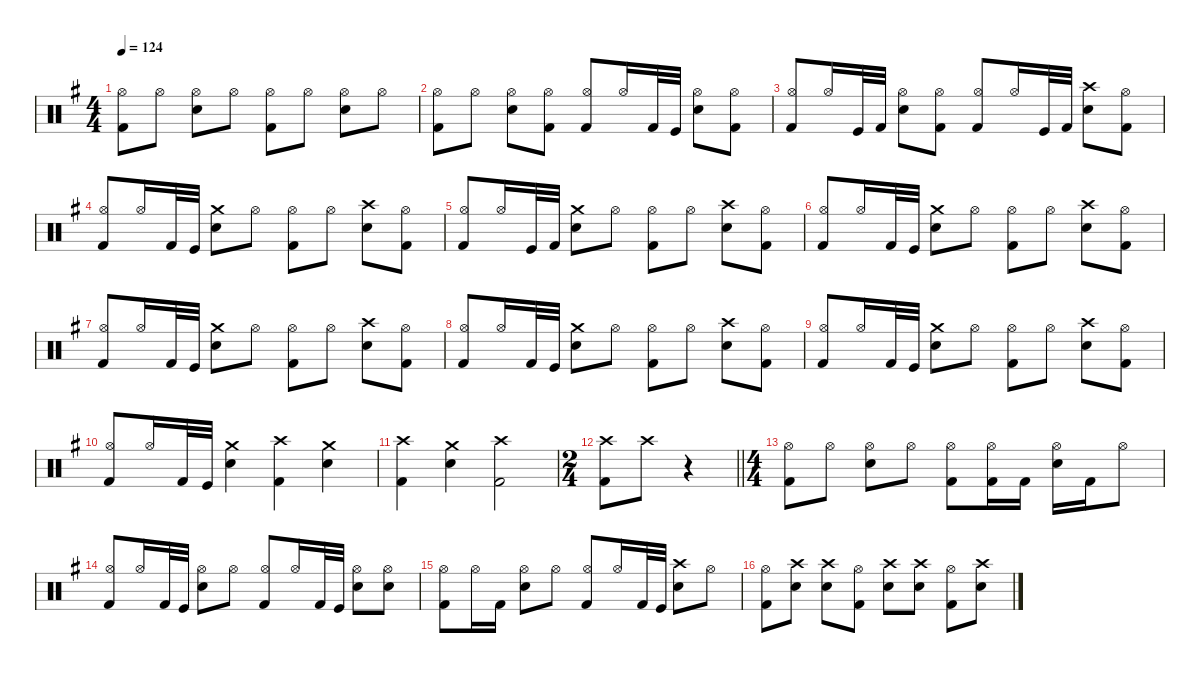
\defaultSystemsLayout 4
\hideDynamics
\bracketExtendMode nobrackets
\singleTrackTrackNamePolicy hidden
\multiTrackTrackNamePolicy hidden
\otherSystemsTrackNameOrientation horizontal
\track ("Drums" "drm.") {defaultSystemsLayout 4 instrument percussion}
\staff {score}
\articulation defaults
\ts (4 4)
\tempo 124
\clef neutral
\ks eminor
("Hi-Hat (open)"{acc forcenatural} "Kick (hit) 2"{acc forcenatural}).8{dy mf beam Down} "Hi-Hat (open)"{acc forcenatural}.8{beam Down} ("Hi-Hat (open)"{acc forcenatural} "Snare (hit) 2"{acc forcenatural}).8{beam Down} "Hi-Hat (open)"{acc forcenatural}.8{beam Down} ("Hi-Hat (open)"{acc forcenatural} "Kick (hit) 2"{acc forcenatural}).8{beam Down} "Hi-Hat (open)"{acc forcenatural}.8{beam Down} ("Hi-Hat (open)"{acc forcenatural} "Snare (hit) 2"{acc forcenatural}).8{beam Down} "Hi-Hat (open)"{acc forcenatural}.8{beam Down} |
("Hi-Hat (open)"{acc forcenatural} "Kick (hit) 2"{acc forcenatural}).8{beam Down} "Hi-Hat (open)"{acc forcenatural}.8{beam Down} ("Hi-Hat (open)"{acc forcenatural} "Snare (hit) 2"{acc forcenatural}).8{beam Down} ("Hi-Hat (open)"{acc forcenatural} "Kick (hit) 2"{acc forcenatural}).8{beam Down} ("Hi-Hat (open)"{acc forcenatural} "Kick (hit) 2"{acc forcenatural}).8{beam Up} "Hi-Hat (open)"{acc forcenatural}.16{beam Up} "Kick (hit) 2"{acc forcenatural}.32{dy ff beam Up} "Kick (hit)"{acc forcenatural}.32{beam Up} ("Hi-Hat (open)"{acc forcenatural} "Snare (hit) 2"{acc forcenatural}).8{dy mf beam Down} ("Hi-Hat (open)"{acc forcenatural} "Kick (hit) 2"{acc forcenatural}).8{beam Down} |
("Hi-Hat (open)"{acc forcenatural} "Kick (hit) 2"{acc forcenatural}).8{beam Up} "Hi-Hat (open)"{acc forcenatural}.16{beam Up} "Kick (hit)"{acc forcenatural}.32{dy ff beam Up} "Kick (hit) 2"{acc forcenatural}.32{beam Up} ("Hi-Hat (open)"{acc forcenatural} "Snare (hit) 2"{acc forcenatural}).8{dy mf beam Down} ("Hi-Hat (open)"{acc forcenatural} "Kick (hit) 2"{acc forcenatural}).8{beam Down} ("Hi-Hat (open)"{acc forcenatural} "Kick (hit) 2"{acc forcenatural}).8{beam Up} "Hi-Hat (open)"{acc forcenatural}.16{beam Up} "Kick (hit)"{acc forcenatural}.32{dy ff beam Up} "Kick (hit) 2"{acc forcenatural}.32{beam Up} ("Crash high (hit)"{acc forcenatural} "Snare (hit) 2"{acc forcenatural}).8{dy mf beam Down} ("Hi-Hat (open)"{acc forcenatural} "Kick (hit) 2"{acc forcenatural}).8{beam Down} |
("Hi-Hat (open)"{acc forcenatural} "Kick (hit) 2"{acc forcenatural}).8{beam Up} "Hi-Hat (open)"{acc forcenatural}.16{beam Up} "Kick (hit) 2"{acc forcenatural}.32{dy ff beam Up} "Kick (hit)"{acc forcenatural}.32{beam Up} ("Crash medium (hit)"{acc forcenatural} "Snare (hit) 2"{acc forcenatural}).8{dy mf beam Down} "Hi-Hat (open)"{acc forcenatural}.8{beam Down} ("Hi-Hat (open)"{acc forcenatural} "Kick (hit) 2"{acc forcenatural}).8{beam Down} "Hi-Hat (open)"{acc forcenatural}.8{beam Down} ("Crash high (hit)"{acc forcenatural} "Snare (hit) 2"{acc forcenatural}).8{beam Down} ("Hi-Hat (open)"{acc forcenatural} "Kick (hit) 2"{acc forcenatural}).8{beam Down} |
("Hi-Hat (open)"{acc forcenatural} "Kick (hit) 2"{acc forcenatural}).8{beam Up} "Hi-Hat (open)"{acc forcenatural}.16{beam Up} "Kick (hit)"{acc forcenatural}.32{dy ff beam Up} "Kick (hit) 2"{acc forcenatural}.32{beam Up} ("Crash medium (hit)"{acc forcenatural} "Snare (hit) 2"{acc forcenatural}).8{dy mf beam Down} "Hi-Hat (open)"{acc forcenatural}.8{beam Down} ("Hi-Hat (open)"{acc forcenatural} "Kick (hit) 2"{acc forcenatural}).8{beam Down} "Hi-Hat (open)"{acc forcenatural}.8{beam Down} ("Crash high (hit)"{acc forcenatural} "Snare (hit) 2"{acc forcenatural}).8{beam Down} ("Hi-Hat (open)"{acc forcenatural} "Kick (hit) 2"{acc forcenatural}).8{beam Down} |
("Hi-Hat (open)"{acc forcenatural} "Kick (hit) 2"{acc forcenatural}).8{beam Up} "Hi-Hat (open)"{acc forcenatural}.16{beam Up} "Kick (hit) 2"{acc forcenatural}.32{dy ff beam Up} "Kick (hit)"{acc forcenatural}.32{beam Up} ("Crash medium (hit)"{acc forcenatural} "Snare (hit) 2"{acc forcenatural}).8{dy mf beam Down} "Hi-Hat (open)"{acc forcenatural}.8{beam Down} ("Hi-Hat (open)"{acc forcenatural} "Kick (hit) 2"{acc forcenatural}).8{beam Down} "Hi-Hat (open)"{acc forcenatural}.8{beam Down} ("Crash high (hit)"{acc forcenatural} "Snare (hit) 2"{acc forcenatural}).8{beam Down} ("Hi-Hat (open)"{acc forcenatural} "Kick (hit) 2"{acc forcenatural}).8{beam Down} |
("Hi-Hat (open)"{acc forcenatural} "Kick (hit) 2"{acc forcenatural}).8{beam Up} "Hi-Hat (open)"{acc forcenatural}.16{beam Up} "Kick (hit) 2"{acc forcenatural}.32{dy ff beam Up} "Kick (hit)"{acc forcenatural}.32{beam Up} ("Crash medium (hit)"{acc forcenatural} "Snare (hit) 2"{acc forcenatural}).8{dy mf beam Down} "Hi-Hat (open)"{acc forcenatural}.8{beam Down} ("Hi-Hat (open)"{acc forcenatural} "Kick (hit) 2"{acc forcenatural}).8{beam Down} "Hi-Hat (open)"{acc forcenatural}.8{beam Down} ("Crash high (hit)"{acc forcenatural} "Snare (hit) 2"{acc forcenatural}).8{beam Down} ("Hi-Hat (open)"{acc forcenatural} "Kick (hit) 2"{acc forcenatural}).8{beam Down} |
("Hi-Hat (open)"{acc forcenatural} "Kick (hit) 2"{acc forcenatural}).8{beam Up} "Hi-Hat (open)"{acc forcenatural}.16{beam Up} "Kick (hit) 2"{acc forcenatural}.32{dy ff beam Up} "Kick (hit)"{acc forcenatural}.32{beam Up} ("Crash medium (hit)"{acc forcenatural} "Snare (hit) 2"{acc forcenatural}).8{dy mf beam Down} "Hi-Hat (open)"{acc forcenatural}.8{beam Down} ("Hi-Hat (open)"{acc forcenatural} "Kick (hit) 2"{acc forcenatural}).8{beam Down} "Hi-Hat (open)"{acc forcenatural}.8{beam Down} ("Crash high (hit)"{acc forcenatural} "Snare (hit) 2"{acc forcenatural}).8{beam Down} ("Hi-Hat (open)"{acc forcenatural} "Kick (hit) 2"{acc forcenatural}).8{beam Down} |
("Hi-Hat (open)"{acc forcenatural} "Kick (hit) 2"{acc forcenatural}).8{beam Up} "Hi-Hat (open)"{acc forcenatural}.16{beam Up} "Kick (hit) 2"{acc forcenatural}.32{dy ff beam Up} "Kick (hit)"{acc forcenatural}.32{beam Up} ("Crash medium (hit)"{acc forcenatural} "Snare (hit) 2"{acc forcenatural}).8{dy mf beam Down} "Hi-Hat (open)"{acc forcenatural}.8{beam Down} ("Hi-Hat (open)"{acc forcenatural} "Kick (hit) 2"{acc forcenatural}).8{beam Down} "Hi-Hat (open)"{acc forcenatural}.8{beam Down} ("Crash high (hit)"{acc forcenatural} "Snare (hit) 2"{acc forcenatural}).8{beam Down} ("Hi-Hat (open)"{acc forcenatural} "Kick (hit) 2"{acc forcenatural}).8{beam Down} |
("Hi-Hat (open)"{acc forcenatural} "Kick (hit) 2"{acc forcenatural}).8{beam Up} "Hi-Hat (open)"{acc forcenatural}.16{beam Up} "Kick (hit) 2"{acc forcenatural}.32{dy ff beam Up} "Kick (hit)"{acc forcenatural}.32{beam Up} ("Crash medium (hit)"{acc forcenatural} "Snare (hit) 2"{acc forcenatural}).4{dy mf beam Down} ("Crash high (hit)"{acc forcenatural} "Kick (hit) 2"{acc forcenatural}).4{beam Down} ("Crash medium (hit)"{acc forcenatural} "Snare (hit) 2"{acc forcenatural}).4{beam Down} |
("Crash high (hit)"{acc forcenatural} "Kick (hit) 2"{acc forcenatural}).4{beam Down} ("Crash medium (hit)"{acc forcenatural} "Snare (hit) 2"{acc forcenatural}).4{beam Down} ("Crash high (hit)"{acc forcenatural} "Kick (hit) 2"{acc forcenatural}).2{beam Down} |
\ts (2 4)
\beaming (8 2 2)
\barLineRight lightlight
("Crash high (hit)"{acc forcenatural} "Kick (hit) 2"{acc forcenatural}).8{beam Down} "Crash high (hit)"{acc forcenatural}.8{dy ppp beam Down} r.4{beam Down} |
\ts (4 4)
\beaming (8 2 2 2 2)
("Hi-Hat (open)"{acc forcenatural} "Kick (hit) 2"{acc forcenatural}).8{dy mf beam Down} "Hi-Hat (open)"{acc forcenatural}.8{beam Down} ("Hi-Hat (open)"{acc forcenatural} "Snare (hit) 2"{acc forcenatural}).8{beam Down} "Hi-Hat (open)"{acc forcenatural}.8{beam Down} ("Hi-Hat (open)"{acc forcenatural} "Kick (hit) 2"{acc forcenatural}).8{beam Down} ("Hi-Hat (open)"{acc forcenatural} "Kick (hit) 2"{acc forcenatural}).16{beam Down} "Kick (hit) 2"{acc forcenatural}.16{dy ff beam Down} ("Hi-Hat (open)"{acc forcenatural} "Snare (hit) 2"{acc forcenatural}).16{dy mf beam Down} "Kick (hit) 2"{acc forcenatural}.16{dy ff beam Down} "Hi-Hat (open)"{acc forcenatural}.8{dy mf beam Down} |
("Hi-Hat (open)"{acc forcenatural} "Kick (hit) 2"{acc forcenatural}).8{beam Up} "Hi-Hat (open)"{acc forcenatural}.16{beam Up} "Kick (hit) 2"{acc forcenatural}.32{dy ff beam Up} "Kick (hit)"{acc forcenatural}.32{beam Up} ("Hi-Hat (open)"{acc forcenatural} "Snare (hit) 2"{acc forcenatural}).8{dy mf beam Down} "Hi-Hat (open)"{acc forcenatural}.8{beam Down} ("Hi-Hat (open)"{acc forcenatural} "Kick (hit) 2"{acc forcenatural}).8{beam Up} "Hi-Hat (open)"{acc forcenatural}.16{beam Up} "Kick (hit) 2"{acc forcenatural}.32{dy ff beam Up} "Kick (hit)"{acc forcenatural}.32{beam Up} ("Hi-Hat (open)"{acc forcenatural} "Snare (hit) 2"{acc forcenatural}).8{dy mf beam Down} ("Hi-Hat (open)"{acc forcenatural} "Snare (hit) 2"{acc forcenatural}).8{beam Down} |
("Hi-Hat (open)"{acc forcenatural} "Kick (hit) 2"{acc forcenatural}).8{beam Down} "Hi-Hat (open)"{acc forcenatural}.16{beam Down} "Kick (hit) 2"{acc forcenatural}.16{dy ff beam Down} ("Hi-Hat (open)"{acc forcenatural} "Snare (hit) 2"{acc forcenatural}).8{dy mf beam Down} "Hi-Hat (open)"{acc forcenatural}.8{beam Down} ("Hi-Hat (open)"{acc forcenatural} "Kick (hit) 2"{acc forcenatural}).8{beam Up} "Hi-Hat (open)"{acc forcenatural}.16{beam Up} "Kick (hit) 2"{acc forcenatural}.32{dy ff beam Up} "Kick (hit)"{acc forcenatural}.32{beam Up} ("Crash high (hit)"{acc forcenatural} "Snare (hit) 2"{acc forcenatural}).8{dy mf beam Down} "Hi-Hat (open)"{acc forcenatural}.8{beam Down} |
("Hi-Hat (open)"{acc forcenatural} "Kick (hit) 2"{acc forcenatural}).8{beam Down} ("Crash high (hit)"{acc forcenatural} "Snare (hit) 2"{acc forcenatural}).8{beam Down} ("Crash high (hit)"{acc forcenatural} "Snare (hit) 2"{acc forcenatural}).8{beam Down} ("Hi-Hat (open)"{acc forcenatural} "Kick (hit) 2"{acc forcenatural}).8{beam Down} ("Crash high (hit)"{acc forcenatural} "Snare (hit) 2"{acc forcenatural}).8{beam Down} ("Crash high (hit)"{acc forcenatural} "Snare (hit) 2"{acc forcenatural}).8{beam Down} ("Hi-Hat (open)"{acc forcenatural} "Kick (hit) 2"{acc forcenatural}).8{beam Down} ("Crash high (hit)"{acc forcenatural} "Snare (hit) 2"{acc forcenatural}).8{beam Down}
